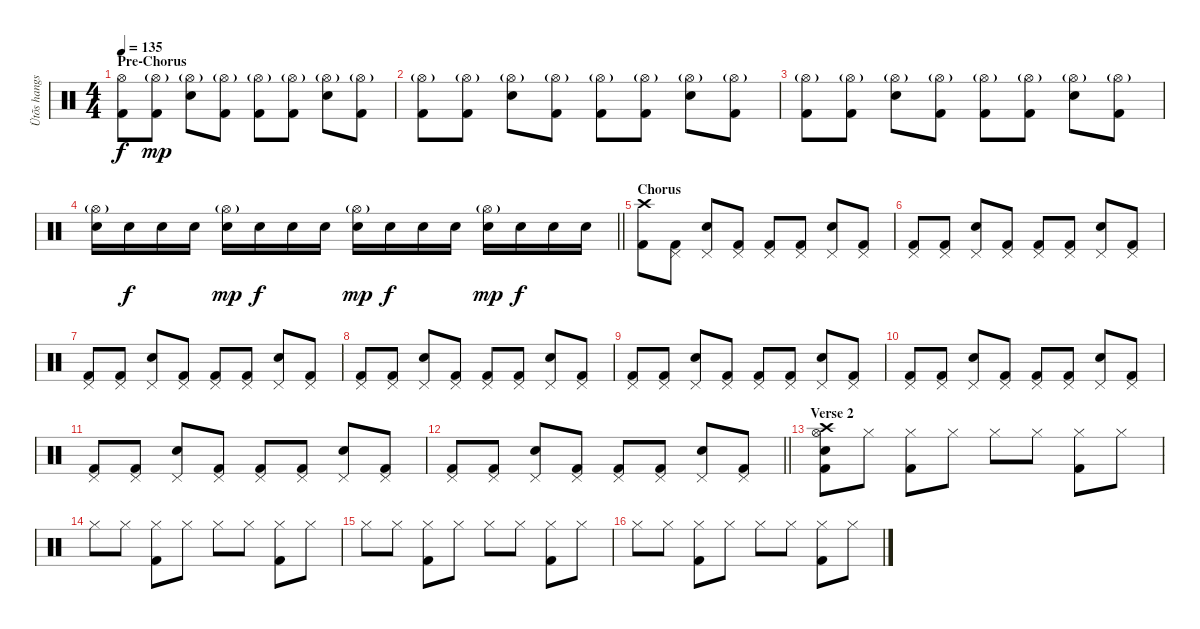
\track ("Ütõs hangszer" "Ütõs hangs") {instrument percussion}
\staff {score}
\articulation defaults
\ts (4 4)
\section ("" "Pre-Chorus")
\tempo 135
\clef neutral
\ks c
("Hi-Hat (open)" "Kick (hit) 2").8{dy f} ("Hi-Hat (open)"{g} "Kick (hit) 2").8{dy mp} ("Hi-Hat (open)"{g} "Electric Snare (hit)").8 ("Hi-Hat (open)"{g} "Kick (hit) 2").8 ("Hi-Hat (open)"{g} "Kick (hit) 2").8 ("Hi-Hat (open)"{g} "Kick (hit) 2").8 ("Hi-Hat (open)"{g} "Electric Snare (hit)").8 ("Hi-Hat (open)"{g} "Kick (hit) 2").8 |
("Hi-Hat (open)"{g} "Kick (hit) 2").8 ("Hi-Hat (open)"{g} "Kick (hit) 2").8 ("Hi-Hat (open)"{g} "Electric Snare (hit)").8 ("Hi-Hat (open)"{g} "Kick (hit) 2").8 ("Hi-Hat (open)"{g} "Kick (hit) 2").8 ("Hi-Hat (open)"{g} "Kick (hit) 2").8 ("Hi-Hat (open)"{g} "Electric Snare (hit)").8 ("Hi-Hat (open)"{g} "Kick (hit) 2").8 |
("Hi-Hat (open)"{g} "Kick (hit) 2").8 ("Hi-Hat (open)"{g} "Kick (hit) 2").8 ("Hi-Hat (open)"{g} "Electric Snare (hit)").8 ("Hi-Hat (open)"{g} "Kick (hit) 2").8 ("Hi-Hat (open)"{g} "Kick (hit) 2").8 ("Hi-Hat (open)"{g} "Kick (hit) 2").8 ("Hi-Hat (open)"{g} "Electric Snare (hit)").8 ("Hi-Hat (open)"{g} "Kick (hit) 2").8 |
\barLineRight lightlight
("Hi-Hat (open)"{g} "Electric Snare (hit)").16 "Electric Snare (hit)".16{dy f} "Electric Snare (hit)".16 "Electric Snare (hit)".16 ("Hi-Hat (open)"{g} "Electric Snare (hit)").16{dy mp} "Electric Snare (hit)".16{dy f} "Electric Snare (hit)".16 "Electric Snare (hit)".16 ("Hi-Hat (open)"{g} "Electric Snare (hit)").16{dy mp} "Electric Snare (hit)".16{dy f} "Electric Snare (hit)".16 "Electric Snare (hit)".16 ("Hi-Hat (open)"{g} "Electric Snare (hit)").16{dy mp} "Electric Snare (hit)".16{dy f} "Electric Snare (hit)".16 "Electric Snare (hit)".16 |
\section ("" "Chorus")
("Crash high (hit)" "Kick (hit) 2").8 ("Pedal Hi-Hat (hit)" "Kick (hit) 2").8 ("Pedal Hi-Hat (hit)" "Electric Snare (hit)").8 ("Pedal Hi-Hat (hit)" "Kick (hit) 2").8 ("Pedal Hi-Hat (hit)" "Kick (hit) 2").8 ("Pedal Hi-Hat (hit)" "Kick (hit) 2").8 ("Pedal Hi-Hat (hit)" "Electric Snare (hit)").8 ("Pedal Hi-Hat (hit)" "Kick (hit) 2").8 |
("Pedal Hi-Hat (hit)" "Kick (hit) 2").8 ("Pedal Hi-Hat (hit)" "Kick (hit) 2").8 ("Pedal Hi-Hat (hit)" "Electric Snare (hit)").8 ("Pedal Hi-Hat (hit)" "Kick (hit) 2").8 ("Pedal Hi-Hat (hit)" "Kick (hit) 2").8 ("Pedal Hi-Hat (hit)" "Kick (hit) 2").8 ("Pedal Hi-Hat (hit)" "Electric Snare (hit)").8 ("Pedal Hi-Hat (hit)" "Kick (hit) 2").8 |
("Pedal Hi-Hat (hit)" "Kick (hit) 2").8 ("Pedal Hi-Hat (hit)" "Kick (hit) 2").8 ("Pedal Hi-Hat (hit)" "Electric Snare (hit)").8 ("Pedal Hi-Hat (hit)" "Kick (hit) 2").8 ("Pedal Hi-Hat (hit)" "Kick (hit) 2").8 ("Pedal Hi-Hat (hit)" "Kick (hit) 2").8 ("Pedal Hi-Hat (hit)" "Electric Snare (hit)").8 ("Pedal Hi-Hat (hit)" "Kick (hit) 2").8 |
("Pedal Hi-Hat (hit)" "Kick (hit) 2").8 ("Pedal Hi-Hat (hit)" "Kick (hit) 2").8 ("Pedal Hi-Hat (hit)" "Electric Snare (hit)").8 ("Pedal Hi-Hat (hit)" "Kick (hit) 2").8 ("Pedal Hi-Hat (hit)" "Kick (hit) 2").8 ("Pedal Hi-Hat (hit)" "Kick (hit) 2").8 ("Pedal Hi-Hat (hit)" "Electric Snare (hit)").8 ("Pedal Hi-Hat (hit)" "Kick (hit) 2").8 |
("Pedal Hi-Hat (hit)" "Kick (hit) 2").8 ("Pedal Hi-Hat (hit)" "Kick (hit) 2").8 ("Pedal Hi-Hat (hit)" "Electric Snare (hit)").8 ("Pedal Hi-Hat (hit)" "Kick (hit) 2").8 ("Pedal Hi-Hat (hit)" "Kick (hit) 2").8 ("Pedal Hi-Hat (hit)" "Kick (hit) 2").8 ("Pedal Hi-Hat (hit)" "Electric Snare (hit)").8 ("Pedal Hi-Hat (hit)" "Kick (hit) 2").8 |
("Pedal Hi-Hat (hit)" "Kick (hit) 2").8 ("Pedal Hi-Hat (hit)" "Kick (hit) 2").8 ("Pedal Hi-Hat (hit)" "Electric Snare (hit)").8 ("Pedal Hi-Hat (hit)" "Kick (hit) 2").8 ("Pedal Hi-Hat (hit)" "Kick (hit) 2").8 ("Pedal Hi-Hat (hit)" "Kick (hit) 2").8 ("Pedal Hi-Hat (hit)" "Electric Snare (hit)").8 ("Pedal Hi-Hat (hit)" "Kick (hit) 2").8 |
("Pedal Hi-Hat (hit)" "Kick (hit) 2").8 ("Pedal Hi-Hat (hit)" "Kick (hit) 2").8 ("Pedal Hi-Hat (hit)" "Electric Snare (hit)").8 ("Pedal Hi-Hat (hit)" "Kick (hit) 2").8 ("Pedal Hi-Hat (hit)" "Kick (hit) 2").8 ("Pedal Hi-Hat (hit)" "Kick (hit) 2").8 ("Pedal Hi-Hat (hit)" "Electric Snare (hit)").8 ("Pedal Hi-Hat (hit)" "Kick (hit) 2").8 |
\barLineRight lightlight
("Pedal Hi-Hat (hit)" "Kick (hit) 2").8 ("Pedal Hi-Hat (hit)" "Kick (hit) 2").8 ("Pedal Hi-Hat (hit)" "Electric Snare (hit)").8 ("Pedal Hi-Hat (hit)" "Kick (hit) 2").8 ("Pedal Hi-Hat (hit)" "Kick (hit) 2").8 ("Pedal Hi-Hat (hit)" "Kick (hit) 2").8 ("Pedal Hi-Hat (hit)" "Electric Snare (hit)").8 ("Pedal Hi-Hat (hit)" "Kick (hit) 2").8 |
\section ("" "Verse 2")
("Hi-Hat (open)" "Crash high (hit)" "Electric Snare (hit)" "Kick (hit) 2").8 "Hi-Hat (closed)".8 ("Hi-Hat (closed)" "Kick (hit) 2").8 "Hi-Hat (closed)".8 "Hi-Hat (closed)".8 "Hi-Hat (closed)".8 ("Hi-Hat (closed)" "Kick (hit) 2").8 "Hi-Hat (closed)".8 |
"Hi-Hat (closed)".8 "Hi-Hat (closed)".8 ("Hi-Hat (closed)" "Kick (hit) 2").8 "Hi-Hat (closed)".8 "Hi-Hat (closed)".8 "Hi-Hat (closed)".8 ("Hi-Hat (closed)" "Kick (hit) 2").8 "Hi-Hat (closed)".8 |
"Hi-Hat (closed)".8 "Hi-Hat (closed)".8 ("Hi-Hat (closed)" "Kick (hit) 2").8 "Hi-Hat (closed)".8 "Hi-Hat (closed)".8 "Hi-Hat (closed)".8 ("Hi-Hat (closed)" "Kick (hit) 2").8 "Hi-Hat (closed)".8 |
"Hi-Hat (closed)".8 "Hi-Hat (closed)".8 ("Hi-Hat (closed)" "Kick (hit) 2").8 "Hi-Hat (closed)".8 "Hi-Hat (closed)".8 "Hi-Hat (closed)".8 ("Hi-Hat (closed)" "Kick (hit) 2").8 "Hi-Hat (closed)".8
